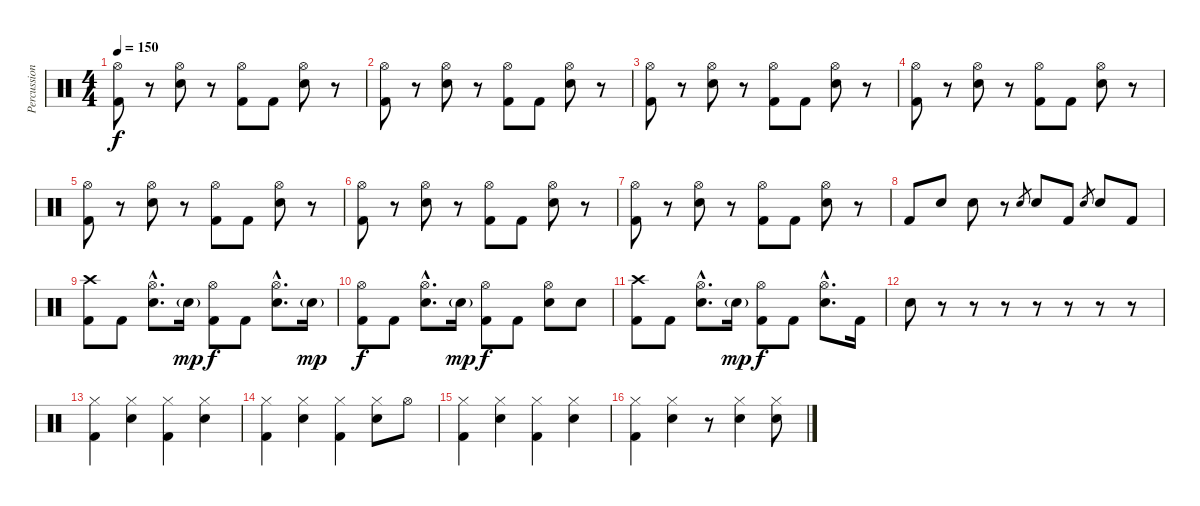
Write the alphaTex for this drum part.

\track ("Percussion" "Percussion") {instrument percussion}
\staff {score}
\articulation defaults
\ts (4 4)
\tempo 150
\clef neutral
\ks c
("Hi-Hat (open)" "Kick (hit) 2").8{dy f} r.8 ("Hi-Hat (open)" "Electric Snare (hit)").8 r.8 ("Hi-Hat (open)" "Kick (hit) 2").8 "Kick (hit) 2".8 ("Hi-Hat (open)" "Electric Snare (hit)").8 r.8 |
("Hi-Hat (open)" "Kick (hit) 2").8 r.8 ("Hi-Hat (open)" "Electric Snare (hit)").8 r.8 ("Hi-Hat (open)" "Kick (hit) 2").8 "Kick (hit) 2".8 ("Hi-Hat (open)" "Electric Snare (hit)").8 r.8 |
("Hi-Hat (open)" "Kick (hit) 2").8 r.8 ("Hi-Hat (open)" "Electric Snare (hit)").8 r.8 ("Hi-Hat (open)" "Kick (hit) 2").8 "Kick (hit) 2".8 ("Hi-Hat (open)" "Electric Snare (hit)").8 r.8 |
("Hi-Hat (open)" "Kick (hit) 2").8 r.8 ("Hi-Hat (open)" "Electric Snare (hit)").8 r.8 ("Hi-Hat (open)" "Kick (hit) 2").8 "Kick (hit) 2".8 ("Hi-Hat (open)" "Electric Snare (hit)").8 r.8 |
("Hi-Hat (open)" "Kick (hit) 2").8 r.8 ("Hi-Hat (open)" "Electric Snare (hit)").8 r.8 ("Hi-Hat (open)" "Kick (hit) 2").8 "Kick (hit) 2".8 ("Hi-Hat (open)" "Electric Snare (hit)").8 r.8 |
("Hi-Hat (open)" "Kick (hit) 2").8 r.8 ("Hi-Hat (open)" "Electric Snare (hit)").8 r.8 ("Hi-Hat (open)" "Kick (hit) 2").8 "Kick (hit) 2".8 ("Hi-Hat (open)" "Electric Snare (hit)").8 r.8 |
("Hi-Hat (open)" "Kick (hit) 2").8 r.8 ("Hi-Hat (open)" "Electric Snare (hit)").8 r.8 ("Hi-Hat (open)" "Kick (hit) 2").8 "Kick (hit) 2".8 ("Hi-Hat (open)" "Electric Snare (hit)").8 r.8 |
"Kick (hit) 2".8 "Electric Snare (hit)".8 "Electric Snare (hit)".8 r.8 "Electric Snare (hit)".8{gr} "Electric Snare (hit)".8 "Kick (hit) 2".8 "Electric Snare (hit)".8{gr} "Electric Snare (hit)".8 "Kick (hit) 2".8 |
("Crash high (hit)" "Kick (hit) 2").8 "Kick (hit) 2".8 ("Hi-Hat (open)"{hac} "Electric Snare (hit)"{hac}).8{d} "Electric Snare (hit)"{g}.16{dy mp} ("Hi-Hat (open)" "Kick (hit) 2").8{dy f} "Kick (hit) 2".8 ("Hi-Hat (open)"{hac} "Electric Snare (hit)"{hac}).8{d} "Electric Snare (hit)"{g}.16{dy mp} |
("Hi-Hat (open)" "Kick (hit) 2").8{dy f} "Kick (hit) 2".8 ("Hi-Hat (open)"{hac} "Electric Snare (hit)"{hac}).8{d} "Electric Snare (hit)"{g}.16{dy mp} ("Hi-Hat (open)" "Kick (hit) 2").8{dy f} "Kick (hit) 2".8 ("Hi-Hat (open)" "Electric Snare (hit)").8 "Electric Snare (hit)".8 |
("Crash high (hit)" "Kick (hit) 2").8 "Kick (hit) 2".8 ("Hi-Hat (open)"{hac} "Electric Snare (hit)"{hac}).8{d} "Electric Snare (hit)"{g}.16{dy mp} ("Hi-Hat (open)" "Kick (hit) 2").8{dy f} "Kick (hit) 2".8 ("Hi-Hat (open)"{hac} "Electric Snare (hit)"{hac}).8{d} "Kick (hit) 2".16 |
"Electric Snare (hit)".8 r.8 r.8 r.8 r.8 r.8 r.8 r.8 |
("Hi-Hat (closed)" "Kick (hit) 2").4 ("Hi-Hat (closed)" "Electric Snare (hit)").4 ("Hi-Hat (closed)" "Kick (hit) 2").4 ("Hi-Hat (closed)" "Electric Snare (hit)").4 |
("Hi-Hat (closed)" "Kick (hit) 2").4 ("Hi-Hat (closed)" "Electric Snare (hit)").4 ("Hi-Hat (closed)" "Kick (hit) 2").4 ("Hi-Hat (closed)" "Electric Snare (hit)").8 "Hi-Hat (open)".8 |
("Hi-Hat (closed)" "Kick (hit) 2").4 ("Hi-Hat (closed)" "Electric Snare (hit)").4 ("Hi-Hat (closed)" "Kick (hit) 2").4 ("Hi-Hat (closed)" "Electric Snare (hit)").4 |
("Hi-Hat (closed)" "Kick (hit) 2").4 ("Hi-Hat (closed)" "Electric Snare (hit)").4 r.8 ("Hi-Hat (closed)" "Electric Snare (hit)").4 ("Hi-Hat (closed)" "Electric Snare (hit)").8
